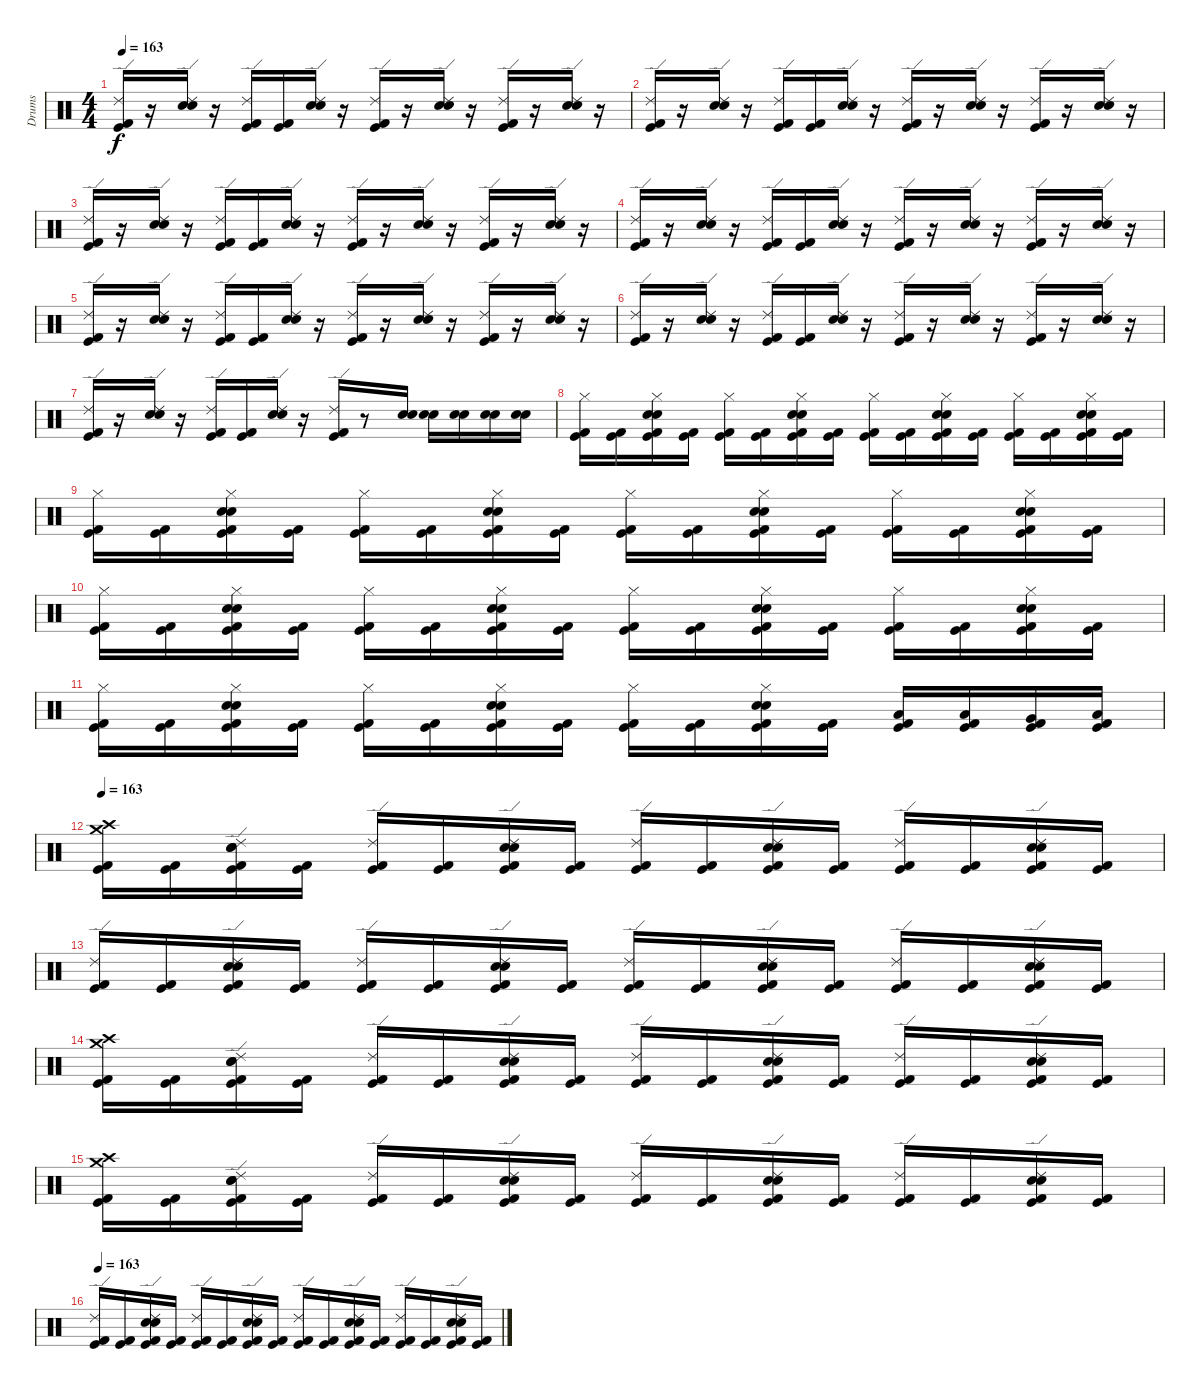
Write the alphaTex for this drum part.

\track ("Drums" "Drums") {instrument percussion}
\staff {score}
\articulation defaults
\ts (4 4)
\tempo 163
\clef neutral
\ks c
("Ride (edge) 2" "Kick (hit) 2" "Kick (hit)").16{dy f} r.16 ("Ride (edge) 2" "Snare (hit) 2" "Electric Snare (hit)").16 r.16 ("Ride (edge) 2" "Kick (hit) 2" "Kick (hit)").16 ("Kick (hit) 2" "Kick (hit)").16 ("Ride (edge) 2" "Snare (hit) 2" "Electric Snare (hit)").16 r.16 ("Ride (edge) 2" "Kick (hit) 2" "Kick (hit)").16 r.16 ("Ride (edge) 2" "Electric Snare (hit)" "Snare (hit) 2").16 r.16 ("Ride (edge) 2" "Kick (hit) 2" "Kick (hit)").16 r.16 ("Ride (edge) 2" "Electric Snare (hit)" "Snare (hit) 2").16 r.16 |
("Ride (edge) 2" "Kick (hit) 2" "Kick (hit)").16 r.16 ("Ride (edge) 2" "Snare (hit) 2" "Electric Snare (hit)").16 r.16 ("Ride (edge) 2" "Kick (hit) 2" "Kick (hit)").16 ("Kick (hit) 2" "Kick (hit)").16 ("Ride (edge) 2" "Snare (hit) 2" "Electric Snare (hit)").16 r.16 ("Ride (edge) 2" "Kick (hit) 2" "Kick (hit)").16 r.16 ("Ride (edge) 2" "Electric Snare (hit)" "Snare (hit) 2").16 r.16 ("Ride (edge) 2" "Kick (hit) 2" "Kick (hit)").16 r.16 ("Ride (edge) 2" "Electric Snare (hit)" "Snare (hit) 2").16 r.16 |
("Ride (edge) 2" "Kick (hit) 2" "Kick (hit)").16 r.16 ("Ride (edge) 2" "Snare (hit) 2" "Electric Snare (hit)").16 r.16 ("Ride (edge) 2" "Kick (hit) 2" "Kick (hit)").16 ("Kick (hit) 2" "Kick (hit)").16 ("Ride (edge) 2" "Snare (hit) 2" "Electric Snare (hit)").16 r.16 ("Ride (edge) 2" "Kick (hit) 2" "Kick (hit)").16 r.16 ("Ride (edge) 2" "Electric Snare (hit)" "Snare (hit) 2").16 r.16 ("Ride (edge) 2" "Kick (hit) 2" "Kick (hit)").16 r.16 ("Ride (edge) 2" "Electric Snare (hit)" "Snare (hit) 2").16 r.16 |
("Ride (edge) 2" "Kick (hit) 2" "Kick (hit)").16 r.16 ("Ride (edge) 2" "Snare (hit) 2" "Electric Snare (hit)").16 r.16 ("Ride (edge) 2" "Kick (hit) 2" "Kick (hit)").16 ("Kick (hit) 2" "Kick (hit)").16 ("Ride (edge) 2" "Snare (hit) 2" "Electric Snare (hit)").16 r.16 ("Ride (edge) 2" "Kick (hit) 2" "Kick (hit)").16 r.16 ("Ride (edge) 2" "Electric Snare (hit)" "Snare (hit) 2").16 r.16 ("Ride (edge) 2" "Kick (hit) 2" "Kick (hit)").16 r.16 ("Ride (edge) 2" "Electric Snare (hit)" "Snare (hit) 2").16 r.16 |
("Ride (edge) 2" "Kick (hit) 2" "Kick (hit)").16 r.16 ("Ride (edge) 2" "Snare (hit) 2" "Electric Snare (hit)").16 r.16 ("Ride (edge) 2" "Kick (hit) 2" "Kick (hit)").16 ("Kick (hit) 2" "Kick (hit)").16 ("Ride (edge) 2" "Snare (hit) 2" "Electric Snare (hit)").16 r.16 ("Ride (edge) 2" "Kick (hit) 2" "Kick (hit)").16 r.16 ("Ride (edge) 2" "Electric Snare (hit)" "Snare (hit) 2").16 r.16 ("Ride (edge) 2" "Kick (hit) 2" "Kick (hit)").16 r.16 ("Ride (edge) 2" "Electric Snare (hit)" "Snare (hit) 2").16 r.16 |
("Ride (edge) 2" "Kick (hit) 2" "Kick (hit)").16 r.16 ("Ride (edge) 2" "Snare (hit) 2" "Electric Snare (hit)").16 r.16 ("Ride (edge) 2" "Kick (hit) 2" "Kick (hit)").16 ("Kick (hit) 2" "Kick (hit)").16 ("Ride (edge) 2" "Snare (hit) 2" "Electric Snare (hit)").16 r.16 ("Ride (edge) 2" "Kick (hit) 2" "Kick (hit)").16 r.16 ("Ride (edge) 2" "Electric Snare (hit)" "Snare (hit) 2").16 r.16 ("Ride (edge) 2" "Kick (hit) 2" "Kick (hit)").16 r.16 ("Ride (edge) 2" "Electric Snare (hit)" "Snare (hit) 2").16 r.16 |
("Ride (edge) 2" "Kick (hit) 2" "Kick (hit)").16 r.16 ("Ride (edge) 2" "Snare (hit) 2" "Electric Snare (hit)").16 r.16 ("Ride (edge) 2" "Kick (hit) 2" "Kick (hit)").16 ("Kick (hit) 2" "Kick (hit)").16 ("Ride (edge) 2" "Snare (hit) 2" "Electric Snare (hit)").16 r.16 ("Ride (edge) 2" "Kick (hit) 2" "Kick (hit)").16 r.8 ("Electric Snare (hit)" "Snare (hit) 2").16 ("Electric Snare (hit)" "Snare (hit) 2").16 ("Electric Snare (hit)" "Snare (hit) 2").16 ("Electric Snare (hit)" "Snare (hit) 2").16 ("Electric Snare (hit)" "Snare (hit) 2").16 |
("Hi-Hat (closed)" "Kick (hit) 2" "Kick (hit)").16 ("Kick (hit) 2" "Kick (hit)").16 ("Electric Snare (hit)" "Snare (hit) 2" "Hi-Hat (closed)" "Kick (hit) 2" "Kick (hit)").16 ("Kick (hit) 2" "Kick (hit)").16 ("Hi-Hat (closed)" "Kick (hit) 2" "Kick (hit)").16 ("Kick (hit) 2" "Kick (hit)").16 ("Electric Snare (hit)" "Snare (hit) 2" "Hi-Hat (closed)" "Kick (hit) 2" "Kick (hit)").16 ("Kick (hit) 2" "Kick (hit)").16 ("Hi-Hat (closed)" "Kick (hit) 2" "Kick (hit)").16 ("Kick (hit) 2" "Kick (hit)").16 ("Electric Snare (hit)" "Snare (hit) 2" "Hi-Hat (closed)" "Kick (hit) 2" "Kick (hit)").16 ("Kick (hit) 2" "Kick (hit)").16 ("Hi-Hat (closed)" "Kick (hit) 2" "Kick (hit)").16 ("Kick (hit) 2" "Kick (hit)").16 ("Electric Snare (hit)" "Snare (hit) 2" "Hi-Hat (closed)" "Kick (hit) 2" "Kick (hit)").16 ("Kick (hit) 2" "Kick (hit)").16 |
("Hi-Hat (closed)" "Kick (hit) 2" "Kick (hit)").16 ("Kick (hit) 2" "Kick (hit)").16 ("Electric Snare (hit)" "Snare (hit) 2" "Hi-Hat (closed)" "Kick (hit) 2" "Kick (hit)").16 ("Kick (hit) 2" "Kick (hit)").16 ("Hi-Hat (closed)" "Kick (hit) 2" "Kick (hit)").16 ("Kick (hit) 2" "Kick (hit)").16 ("Electric Snare (hit)" "Snare (hit) 2" "Hi-Hat (closed)" "Kick (hit) 2" "Kick (hit)").16 ("Kick (hit) 2" "Kick (hit)").16 ("Hi-Hat (closed)" "Kick (hit) 2" "Kick (hit)").16 ("Kick (hit) 2" "Kick (hit)").16 ("Electric Snare (hit)" "Snare (hit) 2" "Hi-Hat (closed)" "Kick (hit) 2" "Kick (hit)").16 ("Kick (hit) 2" "Kick (hit)").16 ("Hi-Hat (closed)" "Kick (hit) 2" "Kick (hit)").16 ("Kick (hit) 2" "Kick (hit)").16 ("Electric Snare (hit)" "Snare (hit) 2" "Hi-Hat (closed)" "Kick (hit) 2" "Kick (hit)").16 ("Kick (hit) 2" "Kick (hit)").16 |
("Hi-Hat (closed)" "Kick (hit) 2" "Kick (hit)").16 ("Kick (hit) 2" "Kick (hit)").16 ("Electric Snare (hit)" "Snare (hit) 2" "Hi-Hat (closed)" "Kick (hit) 2" "Kick (hit)").16 ("Kick (hit) 2" "Kick (hit)").16 ("Hi-Hat (closed)" "Kick (hit) 2" "Kick (hit)").16 ("Kick (hit) 2" "Kick (hit)").16 ("Electric Snare (hit)" "Snare (hit) 2" "Hi-Hat (closed)" "Kick (hit) 2" "Kick (hit)").16 ("Kick (hit) 2" "Kick (hit)").16 ("Hi-Hat (closed)" "Kick (hit) 2" "Kick (hit)").16 ("Kick (hit) 2" "Kick (hit)").16 ("Electric Snare (hit)" "Snare (hit) 2" "Hi-Hat (closed)" "Kick (hit) 2" "Kick (hit)").16 ("Kick (hit) 2" "Kick (hit)").16 ("Hi-Hat (closed)" "Kick (hit) 2" "Kick (hit)").16 ("Kick (hit) 2" "Kick (hit)").16 ("Electric Snare (hit)" "Snare (hit) 2" "Hi-Hat (closed)" "Kick (hit) 2" "Kick (hit)").16 ("Kick (hit) 2" "Kick (hit)").16 |
("Hi-Hat (closed)" "Kick (hit) 2" "Kick (hit)").16 ("Kick (hit) 2" "Kick (hit)").16 ("Electric Snare (hit)" "Snare (hit) 2" "Hi-Hat (closed)" "Kick (hit) 2" "Kick (hit)").16 ("Kick (hit) 2" "Kick (hit)").16 ("Hi-Hat (closed)" "Kick (hit) 2" "Kick (hit)").16 ("Kick (hit) 2" "Kick (hit)").16 ("Electric Snare (hit)" "Snare (hit) 2" "Hi-Hat (closed)" "Kick (hit) 2" "Kick (hit)").16 ("Kick (hit) 2" "Kick (hit)").16 ("Hi-Hat (closed)" "Kick (hit) 2" "Kick (hit)").16 ("Kick (hit) 2" "Kick (hit)").16 ("Electric Snare (hit)" "Snare (hit) 2" "Hi-Hat (closed)" "Kick (hit) 2" "Kick (hit)").16 ("Kick (hit) 2" "Kick (hit)").16 ("Kick (hit) 2" "Kick (hit)" "Low Tom (hit)").16 ("Kick (hit) 2" "Kick (hit)" "Low Tom (hit)").16 ("Kick (hit) 2" "Kick (hit)" "Very Low Tom (hit)").16 ("Kick (hit) 2" "Kick (hit)" "Low Floor Tom (hit)").16 |
\tempo 163
("Crash high (hit)" "Crash medium (hit)" "Kick (hit) 2" "Kick (hit)").16 ("Kick (hit) 2" "Kick (hit)").16 ("Electric Snare (hit)" "Snare (hit) 2" "Ride (edge) 2" "Kick (hit) 2" "Kick (hit)").16 ("Kick (hit) 2" "Kick (hit)").16 ("Ride (edge) 2" "Kick (hit) 2" "Kick (hit)").16 ("Kick (hit) 2" "Kick (hit)").16 ("Electric Snare (hit)" "Snare (hit) 2" "Ride (edge) 2" "Kick (hit)" "Kick (hit) 2").16 ("Kick (hit) 2" "Kick (hit)").16 ("Ride (edge) 2" "Kick (hit) 2" "Kick (hit)").16 ("Kick (hit) 2" "Kick (hit)").16 ("Electric Snare (hit)" "Snare (hit) 2" "Ride (edge) 2" "Kick (hit) 2" "Kick (hit)").16 ("Kick (hit) 2" "Kick (hit)").16 ("Ride (edge) 2" "Kick (hit) 2" "Kick (hit)").16 ("Kick (hit) 2" "Kick (hit)").16 ("Electric Snare (hit)" "Snare (hit) 2" "Ride (edge) 2" "Kick (hit) 2" "Kick (hit)").16 ("Kick (hit) 2" "Kick (hit)").16 |
("Ride (edge) 2" "Kick (hit) 2" "Kick (hit)").16 ("Kick (hit) 2" "Kick (hit)").16 ("Electric Snare (hit)" "Snare (hit) 2" "Ride (edge) 2" "Kick (hit) 2" "Kick (hit)").16 ("Kick (hit) 2" "Kick (hit)").16 ("Ride (edge) 2" "Kick (hit) 2" "Kick (hit)").16 ("Kick (hit) 2" "Kick (hit)").16 ("Electric Snare (hit)" "Snare (hit) 2" "Ride (edge) 2" "Kick (hit)" "Kick (hit) 2").16 ("Kick (hit) 2" "Kick (hit)").16 ("Ride (edge) 2" "Kick (hit) 2" "Kick (hit)").16 ("Kick (hit) 2" "Kick (hit)").16 ("Electric Snare (hit)" "Snare (hit) 2" "Ride (edge) 2" "Kick (hit) 2" "Kick (hit)").16 ("Kick (hit) 2" "Kick (hit)").16 ("Ride (edge) 2" "Kick (hit) 2" "Kick (hit)").16 ("Kick (hit) 2" "Kick (hit)").16 ("Electric Snare (hit)" "Snare (hit) 2" "Ride (edge) 2" "Kick (hit) 2" "Kick (hit)").16 ("Kick (hit) 2" "Kick (hit)").16 |
("Crash high (hit)" "Crash medium (hit)" "Kick (hit) 2" "Kick (hit)").16 ("Kick (hit) 2" "Kick (hit)").16 ("Electric Snare (hit)" "Snare (hit) 2" "Ride (edge) 2" "Kick (hit) 2" "Kick (hit)").16 ("Kick (hit) 2" "Kick (hit)").16 ("Ride (edge) 2" "Kick (hit) 2" "Kick (hit)").16 ("Kick (hit) 2" "Kick (hit)").16 ("Electric Snare (hit)" "Snare (hit) 2" "Ride (edge) 2" "Kick (hit)" "Kick (hit) 2").16 ("Kick (hit) 2" "Kick (hit)").16 ("Ride (edge) 2" "Kick (hit) 2" "Kick (hit)").16 ("Kick (hit) 2" "Kick (hit)").16 ("Electric Snare (hit)" "Snare (hit) 2" "Ride (edge) 2" "Kick (hit) 2" "Kick (hit)").16 ("Kick (hit) 2" "Kick (hit)").16 ("Ride (edge) 2" "Kick (hit) 2" "Kick (hit)").16 ("Kick (hit) 2" "Kick (hit)").16 ("Electric Snare (hit)" "Snare (hit) 2" "Ride (edge) 2" "Kick (hit) 2" "Kick (hit)").16 ("Kick (hit) 2" "Kick (hit)").16 |
("Crash high (hit)" "Crash medium (hit)" "Kick (hit) 2" "Kick (hit)").16 ("Kick (hit) 2" "Kick (hit)").16 ("Electric Snare (hit)" "Snare (hit) 2" "Ride (edge) 2" "Kick (hit) 2" "Kick (hit)").16 ("Kick (hit) 2" "Kick (hit)").16 ("Ride (edge) 2" "Kick (hit) 2" "Kick (hit)").16 ("Kick (hit) 2" "Kick (hit)").16 ("Electric Snare (hit)" "Snare (hit) 2" "Ride (edge) 2" "Kick (hit)" "Kick (hit) 2").16 ("Kick (hit) 2" "Kick (hit)").16 ("Ride (edge) 2" "Kick (hit) 2" "Kick (hit)").16 ("Kick (hit) 2" "Kick (hit)").16 ("Electric Snare (hit)" "Snare (hit) 2" "Ride (edge) 2" "Kick (hit) 2" "Kick (hit)").16 ("Kick (hit) 2" "Kick (hit)").16 ("Ride (edge) 2" "Kick (hit) 2" "Kick (hit)").16 ("Kick (hit) 2" "Kick (hit)").16 ("Electric Snare (hit)" "Snare (hit) 2" "Ride (edge) 2" "Kick (hit) 2" "Kick (hit)").16 ("Kick (hit) 2" "Kick (hit)").16 |
\tempo 163
("Ride (edge) 2" "Kick (hit) 2" "Kick (hit)").16 ("Kick (hit) 2" "Kick (hit)").16 ("Electric Snare (hit)" "Snare (hit) 2" "Ride (edge) 2" "Kick (hit) 2" "Kick (hit)").16 ("Kick (hit) 2" "Kick (hit)").16 ("Ride (edge) 2" "Kick (hit) 2" "Kick (hit)").16 ("Kick (hit) 2" "Kick (hit)").16 ("Electric Snare (hit)" "Snare (hit) 2" "Ride (edge) 2" "Kick (hit)" "Kick (hit) 2").16 ("Kick (hit) 2" "Kick (hit)").16 ("Ride (edge) 2" "Kick (hit) 2" "Kick (hit)").16 ("Kick (hit) 2" "Kick (hit)").16 ("Electric Snare (hit)" "Snare (hit) 2" "Ride (edge) 2" "Kick (hit) 2" "Kick (hit)").16 ("Kick (hit) 2" "Kick (hit)").16 ("Ride (edge) 2" "Kick (hit) 2" "Kick (hit)").16 ("Kick (hit) 2" "Kick (hit)").16 ("Electric Snare (hit)" "Snare (hit) 2" "Ride (edge) 2" "Kick (hit) 2" "Kick (hit)").16 ("Kick (hit) 2" "Kick (hit)").16
